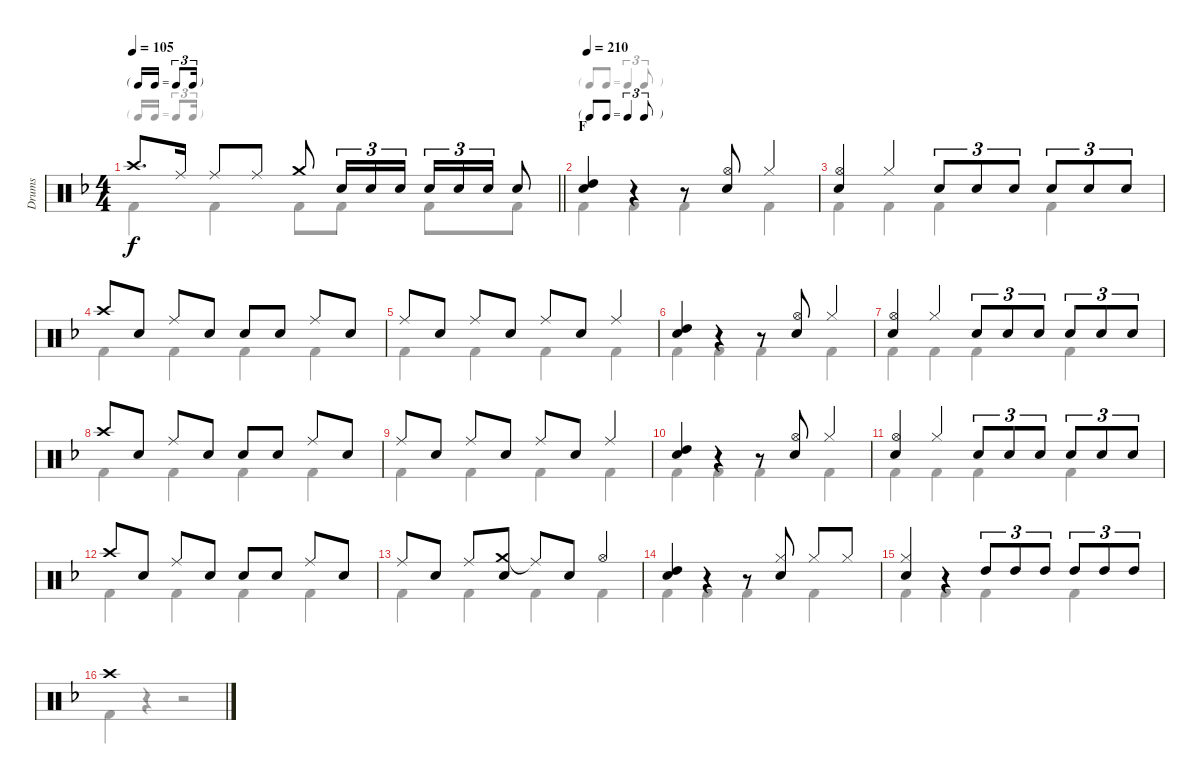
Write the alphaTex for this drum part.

\track ("Drums" "Drums") {instrument percussion}
\staff {score}
\articulation defaults
\voice
\ts (4 4)
\tf triplet16th
\tempo 105
\clef neutral
\barLineRight lightlight
\ks f "Crash high (hit)".8{d dy f} "Ride (middle)".16 "Ride (middle)".8 "Ride (middle)".8 "Crash medium (hit)".8 "Snare (hit) 2".16{tu (3 2)} "Snare (hit) 2".16{tu (3 2)} "Snare (hit) 2".16{tu (3 2)} "Snare (hit) 2".16{tu (3 2)} "Snare (hit) 2".16{tu (3 2)} "Snare (hit) 2".16{tu (3 2)} "Snare (hit) 2".8
|
\tf triplet8th
\section ("" "F")
\tempo 210
("Snare (hit) 2" "High Tom (hit)").4 r.4 r.8 ("Hi-Hat (open)" "Snare (hit) 2").8 "Hi-Hat (closed)".4 |
("Hi-Hat (open)" "Snare (hit) 2").4 "Hi-Hat (closed)".4 "Snare (hit) 2".8{tu (3 2)} "Snare (hit) 2".8{tu (3 2)} "Snare (hit) 2".8{tu (3 2)} "Snare (hit) 2".8{tu (3 2)} "Snare (hit) 2".8{tu (3 2)} "Snare (hit) 2".8{tu (3 2)} |
"Crash high (hit)".8 "Snare (hit) 2".8 "Ride (middle)".8 "Snare (hit) 2".8 "Snare (hit)".8 "Snare (hit) 2".8 "Ride (middle)".8 "Snare (hit) 2".8 |
"Ride (middle)".8 "Snare (hit) 2".8 "Ride (middle)".8 "Snare (hit) 2".8 "Ride (middle)".8 "Snare (hit) 2".8 "Ride (middle)".4 |
("Snare (hit) 2" "High Tom (hit)").4 r.4 r.8 ("Hi-Hat (open)" "Snare (hit) 2").8 "Hi-Hat (closed)".4 |
("Hi-Hat (open)" "Snare (hit) 2").4 "Hi-Hat (closed)".4 "Snare (hit) 2".8{tu (3 2)} "Snare (hit) 2".8{tu (3 2)} "Snare (hit) 2".8{tu (3 2)} "Snare (hit) 2".8{tu (3 2)} "Snare (hit) 2".8{tu (3 2)} "Snare (hit) 2".8{tu (3 2)} |
"Crash high (hit)".8 "Snare (hit) 2".8 "Ride (middle)".8 "Snare (hit) 2".8 "Snare (hit)".8 "Snare (hit) 2".8 "Ride (middle)".8 "Snare (hit) 2".8 |
"Ride (middle)".8 "Snare (hit) 2".8 "Ride (middle)".8 "Snare (hit) 2".8 "Ride (middle)".8 "Snare (hit) 2".8 "Ride (middle)".4 |
("Snare (hit) 2" "High Tom (hit)").4 r.4 r.8 ("Hi-Hat (open)" "Snare (hit) 2").8 "Hi-Hat (closed)".4 |
("Hi-Hat (open)" "Snare (hit) 2").4 "Hi-Hat (closed)".4 "Snare (hit) 2".8{tu (3 2)} "Snare (hit) 2".8{tu (3 2)} "Snare (hit) 2".8{tu (3 2)} "Snare (hit) 2".8{tu (3 2)} "Snare (hit) 2".8{tu (3 2)} "Snare (hit) 2".8{tu (3 2)} |
"Crash high (hit)".8 "Snare (hit) 2".8 "Ride (middle)".8 "Snare (hit) 2".8 "Snare (hit)".8 "Snare (hit) 2".8 "Ride (middle)".8 "Snare (hit) 2".8 |
"Ride (middle)".8 "Snare (hit) 2".8 "Ride (middle)".8 ("Crash medium (hit)" "Snare (hit) 2").8 "Ride (middle)"{t}.8 "Snare (hit) 2".8 "Hi-Hat (open)".4 |
("Snare (hit) 2" "High Tom (hit)").4 r.4 r.8 ("Hi-Hat (closed)" "Snare (hit) 2").8 "Hi-Hat (closed)".8 "Hi-Hat (closed)".8 |
("Hi-Hat (closed)" "Snare (hit) 2").4 r.4 "High Tom (hit)".8{tu (3 2)} "High Tom (hit)".8{tu (3 2)} "High Tom (hit)".8{tu (3 2)} "High Tom (hit)".8{tu (3 2)} "High Tom (hit)".8{tu (3 2)} "High Tom (hit)".8{tu (3 2)} |
"Crash high (hit)".1
\voice
\clef neutral
\ottava regular
\simile none
\barLineRight lightlight
\ks f "Kick (hit) 2".4{dy f} "Kick (hit) 2".4 "Kick (hit) 2".8 "Kick (hit) 2".8 "Kick (hit) 2".8 "Kick (hit) 2".8
|
"Kick (hit) 2".4 "Kick (hit) 2".4 "Kick (hit) 2".4 "Kick (hit) 2".4 |
"Kick (hit) 2".4 "Kick (hit) 2".4 "Kick (hit) 2".4 "Kick (hit) 2".4 |
"Kick (hit) 2".4 "Kick (hit) 2".4 "Kick (hit) 2".4 "Kick (hit) 2".4 |
"Kick (hit) 2".4 "Kick (hit) 2".4 "Kick (hit) 2".4 "Kick (hit) 2".4 |
"Kick (hit) 2".4 "Kick (hit) 2".4 "Kick (hit) 2".4 "Kick (hit) 2".4 |
"Kick (hit) 2".4 "Kick (hit) 2".4 "Kick (hit) 2".4 "Kick (hit) 2".4 |
"Kick (hit) 2".4 "Kick (hit) 2".4 "Kick (hit) 2".4 "Kick (hit) 2".4 |
"Kick (hit) 2".4 "Kick (hit) 2".4 "Kick (hit) 2".4 "Kick (hit) 2".4 |
"Kick (hit) 2".4 "Kick (hit) 2".4 "Kick (hit) 2".4 "Kick (hit) 2".4 |
"Kick (hit) 2".4 "Kick (hit) 2".4 "Kick (hit) 2".4 "Kick (hit) 2".4 |
"Kick (hit) 2".4 "Kick (hit) 2".4 "Kick (hit) 2".4 "Kick (hit) 2".4 |
"Kick (hit) 2".4 "Kick (hit) 2".4 "Kick (hit) 2".4 "Kick (hit) 2".4 |
"Kick (hit) 2".4 "Kick (hit) 2".4 "Kick (hit) 2".4 "Kick (hit) 2".4 |
"Kick (hit) 2".4 "Kick (hit) 2".4 "Kick (hit) 2".4 "Kick (hit) 2".4 |
"Kick (hit) 2".4 r.4 r.2
